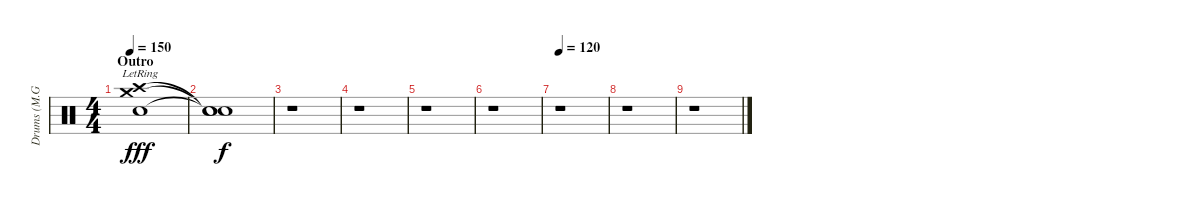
\track ("Drums (M.Großkopf)" "Drums (M.G") {instrument percussion}
\staff {score}
\articulation defaults
\ts (4 4)
\section ("" "Outro")
\tempo 150
\clef neutral
\ks c
("Crash high (hit)"{lr} "Crash medium (hit)"{lr} "Electric Snare (hit)").1{dy fff} |
("Snare (hit)"{t} "Snare (hit)"{t} "Snare (hit)"{t}).1{dy f} |
r.1 |
r.1 |
r.1 |
r.1 |
\tempo 120
r.1 |
r.1 |
r.1
